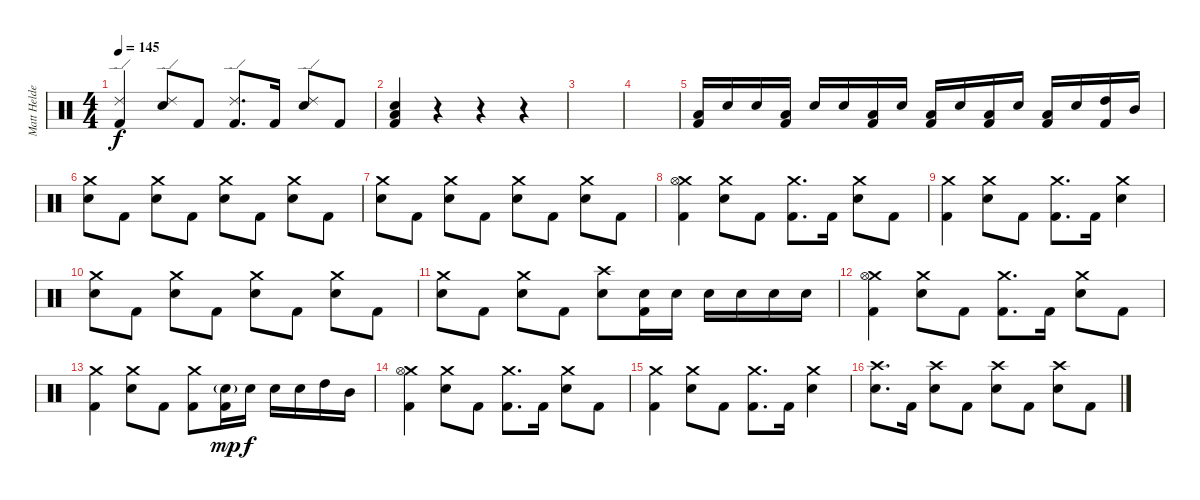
\track ("Matt Helders (Percussion)" "Matt Helde") {instrument percussion}
\staff {score}
\articulation defaults
\ts (4 4)
\tempo 145
\clef neutral
\ks c
("Ride (edge) 2" "Kick (hit) 2").4{dy f} ("Ride (edge) 2" "Snare (hit) 2").8 "Kick (hit) 2".8 ("Ride (edge) 2" "Kick (hit) 2").8{d} "Kick (hit) 2".16 ("Ride (edge) 2" "Snare (hit) 2").8 "Kick (hit) 2".8 |
("Snare (hit) 2" "Low Tom (hit)" "Kick (hit) 2").4 r.4 r.4 r.4 |
|
|
("Low Tom (hit)" "Kick (hit) 2").16 "Snare (hit) 2".16 "Snare (hit) 2".16 ("Low Tom (hit)" "Kick (hit) 2").16 "Snare (hit) 2".16 "Snare (hit) 2".16 ("Low Tom (hit)" "Kick (hit) 2").16 "Snare (hit) 2".16 ("Low Tom (hit)" "Kick (hit) 2").16 "Snare (hit) 2".16 ("Low Tom (hit)" "Kick (hit) 2").16 "Snare (hit) 2".16 ("Low Tom (hit)" "Kick (hit) 2").16 "Snare (hit) 2".16 ("High Tom (hit)" "Kick (hit) 2").16 "Mid Tom (hit)".16 |
("Crash medium (hit)" "Snare (hit) 2").8 "Kick (hit) 2".8 ("Crash medium (hit)" "Snare (hit) 2").8 "Kick (hit) 2".8 ("Crash medium (hit)" "Snare (hit) 2").8 "Kick (hit) 2".8 ("Crash medium (hit)" "Snare (hit) 2").8 "Kick (hit) 2".8 |
("Crash medium (hit)" "Snare (hit) 2").8 "Kick (hit) 2".8 ("Crash medium (hit)" "Snare (hit) 2").8 "Kick (hit) 2".8 ("Crash medium (hit)" "Snare (hit) 2").8 "Kick (hit) 2".8 ("Crash medium (hit)" "Snare (hit) 2").8 "Kick (hit) 2".8 |
("Crash medium (hit)" "Hi-Hat (open)" "Kick (hit) 2").4 ("Crash medium (hit)" "Snare (hit) 2").8 "Kick (hit) 2".8 ("Crash medium (hit)" "Kick (hit) 2").8{d} "Kick (hit) 2".16 ("Crash medium (hit)" "Snare (hit) 2").8 "Kick (hit) 2".8 |
("Crash medium (hit)" "Kick (hit) 2").4 ("Crash medium (hit)" "Snare (hit) 2").8 "Kick (hit) 2".8 ("Crash medium (hit)" "Kick (hit) 2").8{d} "Kick (hit) 2".16 ("Crash medium (hit)" "Snare (hit) 2").4 |
("Crash medium (hit)" "Snare (hit) 2").8 "Kick (hit) 2".8 ("Crash medium (hit)" "Snare (hit) 2").8 "Kick (hit) 2".8 ("Crash medium (hit)" "Snare (hit) 2").8 "Kick (hit) 2".8 ("Crash medium (hit)" "Snare (hit) 2").8 "Kick (hit) 2".8 |
("Crash medium (hit)" "Snare (hit) 2").8 "Kick (hit) 2".8 ("Crash medium (hit)" "Snare (hit) 2").8 "Kick (hit) 2".8 ("Crash high (hit)" "Snare (hit) 2").8 ("Snare (hit) 2" "Kick (hit) 2").16 "Snare (hit) 2".16 "Snare (hit) 2".16 "Snare (hit) 2".16 "Snare (hit) 2".16 "Snare (hit) 2".16 |
("Crash medium (hit)" "Hi-Hat (open)" "Kick (hit) 2").4 ("Crash medium (hit)" "Snare (hit) 2").8 "Kick (hit) 2".8 ("Crash medium (hit)" "Kick (hit) 2").8{d} "Kick (hit) 2".16 ("Crash medium (hit)" "Snare (hit) 2").8 "Kick (hit) 2".8 |
("Crash medium (hit)" "Kick (hit) 2").4 ("Crash medium (hit)" "Snare (hit) 2").8 "Kick (hit) 2".8 ("Crash medium (hit)" "Kick (hit) 2").8 ("Snare (hit) 2"{g} "Kick (hit) 2").16{dy mp} "Snare (hit) 2".16{dy f} "Snare (hit) 2".16 "Snare (hit) 2".16 "High Tom (hit)".16 "Mid Tom (hit)".16 |
("Crash medium (hit)" "Hi-Hat (open)" "Kick (hit) 2").4 ("Crash medium (hit)" "Snare (hit) 2").8 "Kick (hit) 2".8 ("Crash medium (hit)" "Kick (hit) 2").8{d} "Kick (hit) 2".16 ("Crash medium (hit)" "Snare (hit) 2").8 "Kick (hit) 2".8 |
("Crash medium (hit)" "Kick (hit) 2").4 ("Crash medium (hit)" "Snare (hit) 2").8 "Kick (hit) 2".8 ("Crash medium (hit)" "Kick (hit) 2").8{d} "Kick (hit) 2".16 ("Crash medium (hit)" "Snare (hit) 2").4 |
("Crash high (hit)" "Snare (hit) 2").8{d} "Kick (hit) 2".16 ("Crash high (hit)" "Snare (hit) 2").8 "Kick (hit) 2".8 ("Crash high (hit)" "Snare (hit) 2").8 "Kick (hit) 2".8 ("Crash high (hit)" "Snare (hit) 2").8 "Kick (hit) 2".8
